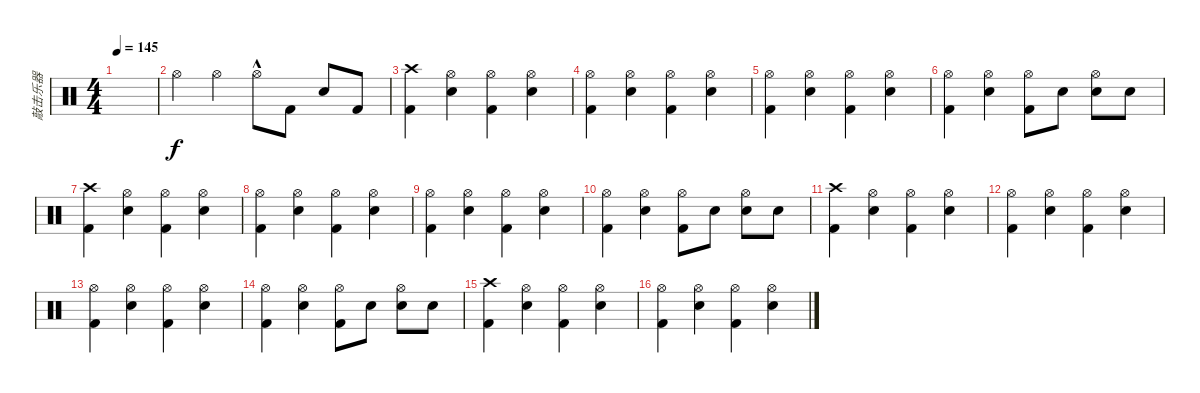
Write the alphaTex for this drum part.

\track ("敲击乐器" "敲击乐器") {instrument percussion}
\staff {score}
\articulation defaults
\ts (4 4)
\tempo 145
\clef neutral
\ks c
|
"Hi-Hat (open)".4 "Hi-Hat (open)".4 "Hi-Hat (open)"{hac}.8 "Kick (hit) 2".8 "Snare (hit) 2".8 "Kick (hit) 2".8 |
("Crash high (hit)" "Kick (hit) 2").4 ("Hi-Hat (open)" "Snare (hit) 2").4 ("Hi-Hat (open)" "Kick (hit) 2").4 ("Hi-Hat (open)" "Snare (hit) 2").4 |
("Hi-Hat (open)" "Kick (hit) 2").4 ("Hi-Hat (open)" "Snare (hit) 2").4 ("Hi-Hat (open)" "Kick (hit) 2").4 ("Hi-Hat (open)" "Snare (hit) 2").4 |
("Hi-Hat (open)" "Kick (hit) 2").4 ("Hi-Hat (open)" "Snare (hit) 2").4 ("Hi-Hat (open)" "Kick (hit) 2").4 ("Hi-Hat (open)" "Snare (hit) 2").4 |
("Hi-Hat (open)" "Kick (hit) 2").4 ("Hi-Hat (open)" "Snare (hit) 2").4 ("Hi-Hat (open)" "Kick (hit) 2").8 "Snare (hit) 2".8 ("Hi-Hat (open)" "Snare (hit) 2").8 "Snare (hit) 2".8 |
("Crash high (hit)" "Kick (hit) 2").4 ("Hi-Hat (open)" "Snare (hit) 2").4 ("Hi-Hat (open)" "Kick (hit) 2").4 ("Hi-Hat (open)" "Snare (hit) 2").4 |
("Hi-Hat (open)" "Kick (hit) 2").4 ("Hi-Hat (open)" "Snare (hit) 2").4 ("Hi-Hat (open)" "Kick (hit) 2").4 ("Hi-Hat (open)" "Snare (hit) 2").4 |
("Hi-Hat (open)" "Kick (hit) 2").4 ("Hi-Hat (open)" "Snare (hit) 2").4 ("Hi-Hat (open)" "Kick (hit) 2").4 ("Hi-Hat (open)" "Snare (hit) 2").4 |
("Hi-Hat (open)" "Kick (hit) 2").4 ("Hi-Hat (open)" "Snare (hit) 2").4 ("Hi-Hat (open)" "Kick (hit) 2").8 "Snare (hit) 2".8 ("Hi-Hat (open)" "Snare (hit) 2").8 "Snare (hit) 2".8 |
("Crash high (hit)" "Kick (hit) 2").4 ("Hi-Hat (open)" "Snare (hit) 2").4 ("Hi-Hat (open)" "Kick (hit) 2").4 ("Hi-Hat (open)" "Snare (hit) 2").4 |
("Hi-Hat (open)" "Kick (hit) 2").4 ("Hi-Hat (open)" "Snare (hit) 2").4 ("Hi-Hat (open)" "Kick (hit) 2").4 ("Hi-Hat (open)" "Snare (hit) 2").4 |
("Hi-Hat (open)" "Kick (hit) 2").4 ("Hi-Hat (open)" "Snare (hit) 2").4 ("Hi-Hat (open)" "Kick (hit) 2").4 ("Hi-Hat (open)" "Snare (hit) 2").4 |
("Hi-Hat (open)" "Kick (hit) 2").4 ("Hi-Hat (open)" "Snare (hit) 2").4 ("Hi-Hat (open)" "Kick (hit) 2").8 "Snare (hit) 2".8 ("Hi-Hat (open)" "Snare (hit) 2").8 "Snare (hit) 2".8 |
("Crash high (hit)" "Kick (hit) 2").4 ("Hi-Hat (open)" "Snare (hit) 2").4 ("Hi-Hat (open)" "Kick (hit) 2").4 ("Hi-Hat (open)" "Snare (hit) 2").4 |
("Hi-Hat (open)" "Kick (hit) 2").4 ("Hi-Hat (open)" "Snare (hit) 2").4 ("Hi-Hat (open)" "Kick (hit) 2").4 ("Hi-Hat (open)" "Snare (hit) 2").4
